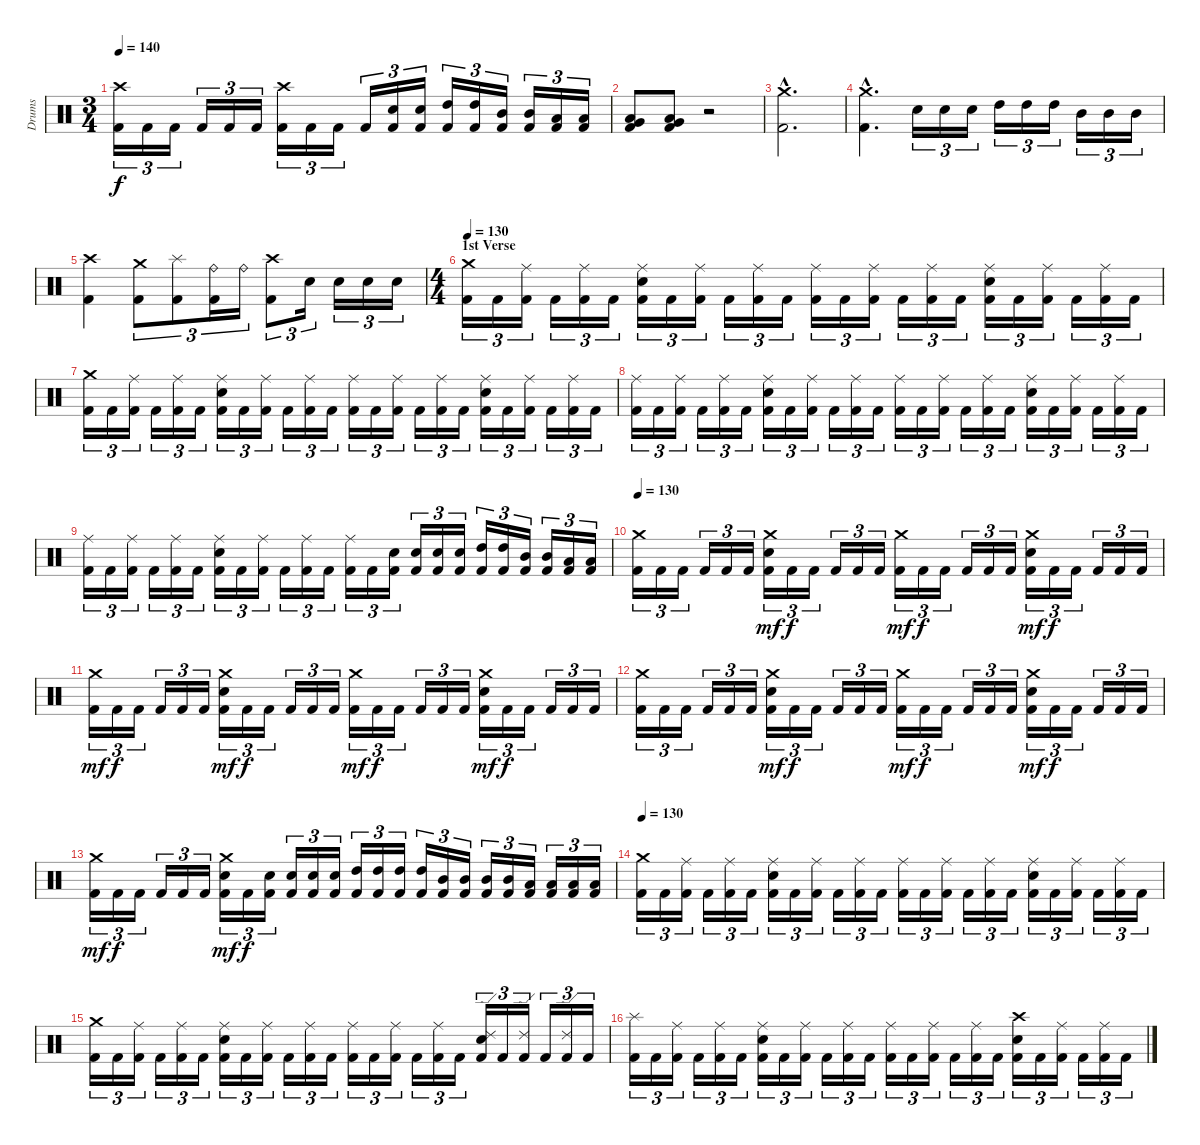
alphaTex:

\track ("Drums" "Drums") {instrument percussion}
\staff {score}
\articulation defaults
\ts (3 4)
\tempo 140
\clef neutral
\ks c
("Kick (hit) 2" "Crash high (hit)").16{tu (3 2) dy f} "Kick (hit) 2".16{tu (3 2)} "Kick (hit) 2".16{tu (3 2)} "Kick (hit) 2".16{tu (3 2)} "Kick (hit) 2".16{tu (3 2)} "Kick (hit) 2".16{tu (3 2)} ("Kick (hit) 2" "Crash high (hit)").16{tu (3 2)} "Kick (hit) 2".16{tu (3 2)} "Kick (hit) 2".16{tu (3 2)} "Kick (hit) 2".16{tu (3 2)} ("Kick (hit) 2" "Electric Snare (hit)").16{tu (3 2)} ("Kick (hit) 2" "Electric Snare (hit)").16{tu (3 2)} ("Kick (hit) 2" "High Tom (hit)").16{tu (3 2)} ("Kick (hit) 2" "High Tom (hit)").16{tu (3 2)} ("Kick (hit) 2" "Mid Tom (hit)").16{tu (3 2)} ("Kick (hit) 2" "Mid Tom (hit)").16{tu (3 2)} ("Kick (hit) 2" "Low Tom (hit)").16{tu (3 2)} ("Kick (hit) 2" "Low Tom (hit)").16{tu (3 2)} |
("Kick (hit) 2" "Low Tom (hit)" "Very Low Tom (hit)").8 ("Kick (hit) 2" "Low Tom (hit)" "Very Low Tom (hit)").8 r.2 |
("Kick (hit) 2"{hac} "Crash medium (hit)"{hac}).2{d} |
("Kick (hit) 2"{hac} "Crash medium (hit)"{hac}).4{d} "Electric Snare (hit)".16{tu (3 2)} "Electric Snare (hit)".16{tu (3 2)} "Electric Snare (hit)".16{tu (3 2)} "High Tom (hit)".16{tu (3 2)} "High Tom (hit)".16{tu (3 2)} "High Tom (hit)".16{tu (3 2)} "Mid Tom (hit)".16{tu (3 2)} "Mid Tom (hit)".16{tu (3 2)} "Mid Tom (hit)".16{tu (3 2)} |
("Kick (hit) 2" "Crash high (hit)").4 ("Kick (hit) 2" "Crash medium (hit)").8{tu (3 2)} ("Kick (hit) 2" "Splash (hit)").8{tu (3 2)} ("Kick (hit) 2" "Ride (bell)").16{tu (3 2)} "Ride (bell)".16{tu (3 2)} ("Kick (hit) 2" "Crash high (hit)").8{tu (3 2)} "Electric Snare (hit)".16{tu (3 2)} "Electric Snare (hit)".16{tu (3 2)} "Electric Snare (hit)".16{tu (3 2)} "Electric Snare (hit)".16{tu (3 2)} |
\ts (4 4)
\section ("" "1st Verse")
\tempo 130
("Kick (hit) 2" "Crash medium (hit)").16{tu (3 2)} "Kick (hit) 2".16{tu (3 2)} ("Kick (hit) 2" "Ride (middle)").16{tu (3 2)} "Kick (hit) 2".16{tu (3 2)} ("Kick (hit) 2" "Ride (middle)").16{tu (3 2)} "Kick (hit) 2".16{tu (3 2)} ("Kick (hit) 2" "Electric Snare (hit)" "Ride (middle)").16{tu (3 2)} "Kick (hit) 2".16{tu (3 2)} ("Kick (hit) 2" "Ride (middle)").16{tu (3 2)} "Kick (hit) 2".16{tu (3 2)} ("Kick (hit) 2" "Ride (middle)").16{tu (3 2)} "Kick (hit) 2".16{tu (3 2)} ("Kick (hit) 2" "Ride (middle)").16{tu (3 2)} "Kick (hit) 2".16{tu (3 2)} ("Kick (hit) 2" "Ride (middle)").16{tu (3 2)} "Kick (hit) 2".16{tu (3 2)} ("Kick (hit) 2" "Ride (middle)").16{tu (3 2)} "Kick (hit) 2".16{tu (3 2)} ("Kick (hit) 2" "Electric Snare (hit)" "Ride (middle)").16{tu (3 2)} "Kick (hit) 2".16{tu (3 2)} ("Kick (hit) 2" "Ride (middle)").16{tu (3 2)} "Kick (hit) 2".16{tu (3 2)} ("Kick (hit) 2" "Ride (middle)").16{tu (3 2)} "Kick (hit) 2".16{tu (3 2)} |
("Kick (hit) 2" "Crash medium (hit)").16{tu (3 2)} "Kick (hit) 2".16{tu (3 2)} ("Kick (hit) 2" "Ride (middle)").16{tu (3 2)} "Kick (hit) 2".16{tu (3 2)} ("Kick (hit) 2" "Ride (middle)").16{tu (3 2)} "Kick (hit) 2".16{tu (3 2)} ("Kick (hit) 2" "Electric Snare (hit)" "Ride (middle)").16{tu (3 2)} "Kick (hit) 2".16{tu (3 2)} ("Kick (hit) 2" "Ride (middle)").16{tu (3 2)} "Kick (hit) 2".16{tu (3 2)} ("Kick (hit) 2" "Ride (middle)").16{tu (3 2)} "Kick (hit) 2".16{tu (3 2)} ("Kick (hit) 2" "Ride (middle)").16{tu (3 2)} "Kick (hit) 2".16{tu (3 2)} ("Kick (hit) 2" "Ride (middle)").16{tu (3 2)} "Kick (hit) 2".16{tu (3 2)} ("Kick (hit) 2" "Ride (middle)").16{tu (3 2)} "Kick (hit) 2".16{tu (3 2)} ("Kick (hit) 2" "Electric Snare (hit)" "Ride (middle)").16{tu (3 2)} "Kick (hit) 2".16{tu (3 2)} ("Kick (hit) 2" "Ride (middle)").16{tu (3 2)} "Kick (hit) 2".16{tu (3 2)} ("Kick (hit) 2" "Ride (middle)").16{tu (3 2)} "Kick (hit) 2".16{tu (3 2)} |
("Kick (hit) 2" "Ride (middle)").16{tu (3 2)} "Kick (hit) 2".16{tu (3 2)} ("Kick (hit) 2" "Ride (middle)").16{tu (3 2)} "Kick (hit) 2".16{tu (3 2)} ("Kick (hit) 2" "Ride (middle)").16{tu (3 2)} "Kick (hit) 2".16{tu (3 2)} ("Kick (hit) 2" "Electric Snare (hit)" "Ride (middle)").16{tu (3 2)} "Kick (hit) 2".16{tu (3 2)} ("Kick (hit) 2" "Ride (middle)").16{tu (3 2)} "Kick (hit) 2".16{tu (3 2)} ("Kick (hit) 2" "Ride (middle)").16{tu (3 2)} "Kick (hit) 2".16{tu (3 2)} ("Kick (hit) 2" "Ride (middle)").16{tu (3 2)} "Kick (hit) 2".16{tu (3 2)} ("Kick (hit) 2" "Ride (middle)").16{tu (3 2)} "Kick (hit) 2".16{tu (3 2)} ("Kick (hit) 2" "Ride (middle)").16{tu (3 2)} "Kick (hit) 2".16{tu (3 2)} ("Kick (hit) 2" "Electric Snare (hit)" "Ride (middle)").16{tu (3 2)} "Kick (hit) 2".16{tu (3 2)} ("Kick (hit) 2" "Ride (middle)").16{tu (3 2)} "Kick (hit) 2".16{tu (3 2)} ("Kick (hit) 2" "Ride (middle)").16{tu (3 2)} "Kick (hit) 2".16{tu (3 2)} |
("Kick (hit) 2" "Ride (middle)").16{tu (3 2)} "Kick (hit) 2".16{tu (3 2)} ("Kick (hit) 2" "Ride (middle)").16{tu (3 2)} "Kick (hit) 2".16{tu (3 2)} ("Kick (hit) 2" "Ride (middle)").16{tu (3 2)} "Kick (hit) 2".16{tu (3 2)} ("Kick (hit) 2" "Electric Snare (hit)" "Ride (middle)").16{tu (3 2)} "Kick (hit) 2".16{tu (3 2)} ("Kick (hit) 2" "Ride (middle)").16{tu (3 2)} "Kick (hit) 2".16{tu (3 2)} ("Kick (hit) 2" "Ride (middle)").16{tu (3 2)} "Kick (hit) 2".16{tu (3 2)} ("Kick (hit) 2" "Ride (middle)").16{tu (3 2)} "Kick (hit) 2".16{tu (3 2)} ("Kick (hit) 2" "Electric Snare (hit)").16{tu (3 2)} ("Kick (hit) 2" "Electric Snare (hit)").16{tu (3 2)} ("Kick (hit) 2" "Electric Snare (hit)").16{tu (3 2)} ("Kick (hit) 2" "Electric Snare (hit)").16{tu (3 2)} ("Kick (hit) 2" "High Tom (hit)").16{tu (3 2)} ("Kick (hit) 2" "High Tom (hit)").16{tu (3 2)} ("Kick (hit) 2" "Mid Tom (hit)").16{tu (3 2)} ("Kick (hit) 2" "Mid Tom (hit)").16{tu (3 2)} ("Kick (hit) 2" "Low Tom (hit)").16{tu (3 2)} ("Kick (hit) 2" "Low Tom (hit)").16{tu (3 2)} |
\tempo 130
("Kick (hit) 2" "Crash medium (hit)").16{tu (3 2)} "Kick (hit) 2".16{tu (3 2)} "Kick (hit) 2".16{tu (3 2)} "Kick (hit) 2".16{tu (3 2)} "Kick (hit) 2".16{tu (3 2)} "Kick (hit) 2".16{tu (3 2)} ("Kick (hit) 2" "Electric Snare (hit)" "Crash medium (hit)").16{tu (3 2) dy mf} "Kick (hit) 2".16{tu (3 2) dy f} "Kick (hit) 2".16{tu (3 2)} "Kick (hit) 2".16{tu (3 2)} "Kick (hit) 2".16{tu (3 2)} "Kick (hit) 2".16{tu (3 2)} ("Kick (hit) 2" "Crash medium (hit)").16{tu (3 2) dy mf} "Kick (hit) 2".16{tu (3 2) dy f} "Kick (hit) 2".16{tu (3 2)} "Kick (hit) 2".16{tu (3 2)} "Kick (hit) 2".16{tu (3 2)} "Kick (hit) 2".16{tu (3 2)} ("Kick (hit) 2" "Electric Snare (hit)" "Crash medium (hit)").16{tu (3 2) dy mf} "Kick (hit) 2".16{tu (3 2) dy f} "Kick (hit) 2".16{tu (3 2)} "Kick (hit) 2".16{tu (3 2)} "Kick (hit) 2".16{tu (3 2)} "Kick (hit) 2".16{tu (3 2)} |
("Kick (hit) 2" "Crash medium (hit)").16{tu (3 2) dy mf} "Kick (hit) 2".16{tu (3 2) dy f} "Kick (hit) 2".16{tu (3 2)} "Kick (hit) 2".16{tu (3 2)} "Kick (hit) 2".16{tu (3 2)} "Kick (hit) 2".16{tu (3 2)} ("Kick (hit) 2" "Electric Snare (hit)" "Crash medium (hit)").16{tu (3 2) dy mf} "Kick (hit) 2".16{tu (3 2) dy f} "Kick (hit) 2".16{tu (3 2)} "Kick (hit) 2".16{tu (3 2)} "Kick (hit) 2".16{tu (3 2)} "Kick (hit) 2".16{tu (3 2)} ("Kick (hit) 2" "Crash medium (hit)").16{tu (3 2) dy mf} "Kick (hit) 2".16{tu (3 2) dy f} "Kick (hit) 2".16{tu (3 2)} "Kick (hit) 2".16{tu (3 2)} "Kick (hit) 2".16{tu (3 2)} "Kick (hit) 2".16{tu (3 2)} ("Kick (hit) 2" "Electric Snare (hit)" "Crash medium (hit)").16{tu (3 2) dy mf} "Kick (hit) 2".16{tu (3 2) dy f} "Kick (hit) 2".16{tu (3 2)} "Kick (hit) 2".16{tu (3 2)} "Kick (hit) 2".16{tu (3 2)} "Kick (hit) 2".16{tu (3 2)} |
("Kick (hit) 2" "Crash medium (hit)").16{tu (3 2)} "Kick (hit) 2".16{tu (3 2)} "Kick (hit) 2".16{tu (3 2)} "Kick (hit) 2".16{tu (3 2)} "Kick (hit) 2".16{tu (3 2)} "Kick (hit) 2".16{tu (3 2)} ("Kick (hit) 2" "Electric Snare (hit)" "Crash medium (hit)").16{tu (3 2) dy mf} "Kick (hit) 2".16{tu (3 2) dy f} "Kick (hit) 2".16{tu (3 2)} "Kick (hit) 2".16{tu (3 2)} "Kick (hit) 2".16{tu (3 2)} "Kick (hit) 2".16{tu (3 2)} ("Kick (hit) 2" "Crash medium (hit)").16{tu (3 2) dy mf} "Kick (hit) 2".16{tu (3 2) dy f} "Kick (hit) 2".16{tu (3 2)} "Kick (hit) 2".16{tu (3 2)} "Kick (hit) 2".16{tu (3 2)} "Kick (hit) 2".16{tu (3 2)} ("Kick (hit) 2" "Electric Snare (hit)" "Crash medium (hit)").16{tu (3 2) dy mf} "Kick (hit) 2".16{tu (3 2) dy f} "Kick (hit) 2".16{tu (3 2)} "Kick (hit) 2".16{tu (3 2)} "Kick (hit) 2".16{tu (3 2)} "Kick (hit) 2".16{tu (3 2)} |
("Kick (hit) 2" "Crash medium (hit)").16{tu (3 2) dy mf} "Kick (hit) 2".16{tu (3 2) dy f} "Kick (hit) 2".16{tu (3 2)} "Kick (hit) 2".16{tu (3 2)} "Kick (hit) 2".16{tu (3 2)} "Kick (hit) 2".16{tu (3 2)} ("Kick (hit) 2" "Electric Snare (hit)" "Crash medium (hit)").16{tu (3 2) dy mf} "Kick (hit) 2".16{tu (3 2) dy f} ("Kick (hit) 2" "Electric Snare (hit)").16{tu (3 2)} ("Kick (hit) 2" "Electric Snare (hit)").16{tu (3 2)} ("Kick (hit) 2" "Electric Snare (hit)").16{tu (3 2)} ("Kick (hit) 2" "Electric Snare (hit)").16{tu (3 2)} ("Kick (hit) 2" "High Tom (hit)").16{tu (3 2)} ("Kick (hit) 2" "High Tom (hit)").16{tu (3 2)} ("Kick (hit) 2" "High Tom (hit)").16{tu (3 2)} ("Kick (hit) 2" "High Tom (hit)").16{tu (3 2)} ("Kick (hit) 2" "Mid Tom (hit)").16{tu (3 2)} ("Kick (hit) 2" "Mid Tom (hit)").16{tu (3 2)} ("Kick (hit) 2" "Mid Tom (hit)").16{tu (3 2)} ("Kick (hit) 2" "Mid Tom (hit)").16{tu (3 2)} ("Kick (hit) 2" "Low Tom (hit)").16{tu (3 2)} ("Kick (hit) 2" "Low Tom (hit)").16{tu (3 2)} ("Kick (hit) 2" "Low Tom (hit)").16{tu (3 2)} ("Kick (hit) 2" "Low Tom (hit)").16{tu (3 2)} |
\tempo 130
("Kick (hit) 2" "Crash medium (hit)").16{tu (3 2)} "Kick (hit) 2".16{tu (3 2)} ("Kick (hit) 2" "Ride (middle)").16{tu (3 2)} "Kick (hit) 2".16{tu (3 2)} ("Kick (hit) 2" "Ride (middle)").16{tu (3 2)} "Kick (hit) 2".16{tu (3 2)} ("Kick (hit) 2" "Electric Snare (hit)" "Ride (middle)").16{tu (3 2)} "Kick (hit) 2".16{tu (3 2)} ("Kick (hit) 2" "Ride (middle)").16{tu (3 2)} "Kick (hit) 2".16{tu (3 2)} ("Kick (hit) 2" "Ride (middle)").16{tu (3 2)} "Kick (hit) 2".16{tu (3 2)} ("Kick (hit) 2" "Ride (middle)").16{tu (3 2)} "Kick (hit) 2".16{tu (3 2)} ("Kick (hit) 2" "Ride (middle)").16{tu (3 2)} "Kick (hit) 2".16{tu (3 2)} ("Kick (hit) 2" "Ride (middle)").16{tu (3 2)} "Kick (hit) 2".16{tu (3 2)} ("Kick (hit) 2" "Electric Snare (hit)" "Ride (middle)").16{tu (3 2)} "Kick (hit) 2".16{tu (3 2)} ("Kick (hit) 2" "Ride (middle)").16{tu (3 2)} "Kick (hit) 2".16{tu (3 2)} ("Kick (hit) 2" "Ride (middle)").16{tu (3 2)} "Kick (hit) 2".16{tu (3 2)} |
("Kick (hit) 2" "Crash medium (hit)").16{tu (3 2)} "Kick (hit) 2".16{tu (3 2)} ("Kick (hit) 2" "Ride (middle)").16{tu (3 2)} "Kick (hit) 2".16{tu (3 2)} ("Kick (hit) 2" "Ride (middle)").16{tu (3 2)} "Kick (hit) 2".16{tu (3 2)} ("Kick (hit) 2" "Electric Snare (hit)" "Ride (middle)").16{tu (3 2)} "Kick (hit) 2".16{tu (3 2)} ("Kick (hit) 2" "Ride (middle)").16{tu (3 2)} "Kick (hit) 2".16{tu (3 2)} ("Kick (hit) 2" "Ride (middle)").16{tu (3 2)} "Kick (hit) 2".16{tu (3 2)} ("Kick (hit) 2" "Ride (middle)").16{tu (3 2)} "Kick (hit) 2".16{tu (3 2)} ("Kick (hit) 2" "Ride (middle)").16{tu (3 2)} "Kick (hit) 2".16{tu (3 2)} ("Kick (hit) 2" "Ride (middle)").16{tu (3 2)} "Kick (hit) 2".16{tu (3 2)} ("Kick (hit) 2" "Electric Snare (hit)" "Ride (edge) 2").16{tu (3 2)} "Kick (hit) 2".16{tu (3 2)} ("Kick (hit) 2" "Ride (edge) 2").16{tu (3 2)} "Kick (hit) 2".16{tu (3 2)} ("Kick (hit) 2" "Ride (edge) 2").16{tu (3 2)} "Kick (hit) 2".16{tu (3 2)} |
("Kick (hit) 2" "Splash (hit)").16{tu (3 2)} "Kick (hit) 2".16{tu (3 2)} ("Kick (hit) 2" "Ride (middle)").16{tu (3 2)} "Kick (hit) 2".16{tu (3 2)} ("Kick (hit) 2" "Ride (middle)").16{tu (3 2)} "Kick (hit) 2".16{tu (3 2)} ("Kick (hit) 2" "Electric Snare (hit)" "Ride (middle)").16{tu (3 2)} "Kick (hit) 2".16{tu (3 2)} ("Kick (hit) 2" "Ride (middle)").16{tu (3 2)} "Kick (hit) 2".16{tu (3 2)} ("Kick (hit) 2" "Ride (middle)").16{tu (3 2)} "Kick (hit) 2".16{tu (3 2)} ("Kick (hit) 2" "Ride (middle)").16{tu (3 2)} "Kick (hit) 2".16{tu (3 2)} ("Kick (hit) 2" "Ride (middle)").16{tu (3 2)} "Kick (hit) 2".16{tu (3 2)} ("Kick (hit) 2" "Ride (middle)").16{tu (3 2)} "Kick (hit) 2".16{tu (3 2)} ("Kick (hit) 2" "Electric Snare (hit)" "Crash high (hit)").16{tu (3 2)} "Kick (hit) 2".16{tu (3 2)} ("Kick (hit) 2" "Ride (middle)").16{tu (3 2)} "Kick (hit) 2".16{tu (3 2)} ("Kick (hit) 2" "Ride (middle)").16{tu (3 2)} "Kick (hit) 2".16{tu (3 2)}
